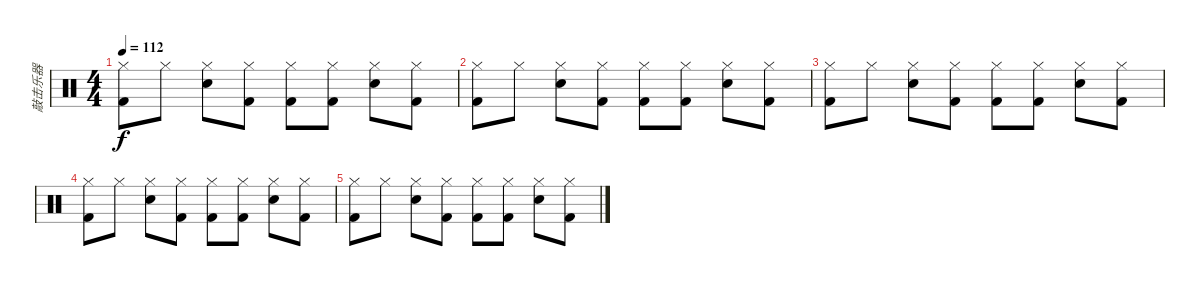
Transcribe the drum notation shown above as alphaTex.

\track ("敲击乐器" "敲击乐器") {instrument percussion}
\staff {score}
\articulation defaults
\ts (4 4)
\tempo 112
\clef neutral
\ks c
("Hi-Hat (closed)" "Kick (hit) 2").8{dy f} "Hi-Hat (closed)".8 ("Hi-Hat (closed)" "Snare (hit) 2").8 ("Hi-Hat (closed)" "Kick (hit) 2").8 ("Hi-Hat (closed)" "Kick (hit) 2").8 ("Hi-Hat (closed)" "Kick (hit) 2").8 ("Hi-Hat (closed)" "Snare (hit) 2").8 ("Hi-Hat (closed)" "Kick (hit) 2").8 |
("Hi-Hat (closed)" "Kick (hit) 2").8 "Hi-Hat (closed)".8 ("Hi-Hat (closed)" "Snare (hit) 2").8 ("Hi-Hat (closed)" "Kick (hit) 2").8 ("Hi-Hat (closed)" "Kick (hit) 2").8 ("Hi-Hat (closed)" "Kick (hit) 2").8 ("Hi-Hat (closed)" "Snare (hit) 2").8 ("Hi-Hat (closed)" "Kick (hit) 2").8 |
("Hi-Hat (closed)" "Kick (hit) 2").8 "Hi-Hat (closed)".8 ("Hi-Hat (closed)" "Snare (hit) 2").8 ("Hi-Hat (closed)" "Kick (hit) 2").8 ("Hi-Hat (closed)" "Kick (hit) 2").8 ("Hi-Hat (closed)" "Kick (hit) 2").8 ("Hi-Hat (closed)" "Snare (hit) 2").8 ("Hi-Hat (closed)" "Kick (hit) 2").8 |
("Hi-Hat (closed)" "Kick (hit) 2").8 "Hi-Hat (closed)".8 ("Hi-Hat (closed)" "Snare (hit) 2").8 ("Hi-Hat (closed)" "Kick (hit) 2").8 ("Hi-Hat (closed)" "Kick (hit) 2").8 ("Hi-Hat (closed)" "Kick (hit) 2").8 ("Hi-Hat (closed)" "Snare (hit) 2").8 ("Hi-Hat (closed)" "Kick (hit) 2").8 |
("Hi-Hat (closed)" "Kick (hit) 2").8 "Hi-Hat (closed)".8 ("Hi-Hat (closed)" "Snare (hit) 2").8 ("Hi-Hat (closed)" "Kick (hit) 2").8 ("Hi-Hat (closed)" "Kick (hit) 2").8 ("Hi-Hat (closed)" "Kick (hit) 2").8 ("Hi-Hat (closed)" "Snare (hit) 2").8 ("Hi-Hat (closed)" "Kick (hit) 2").8
